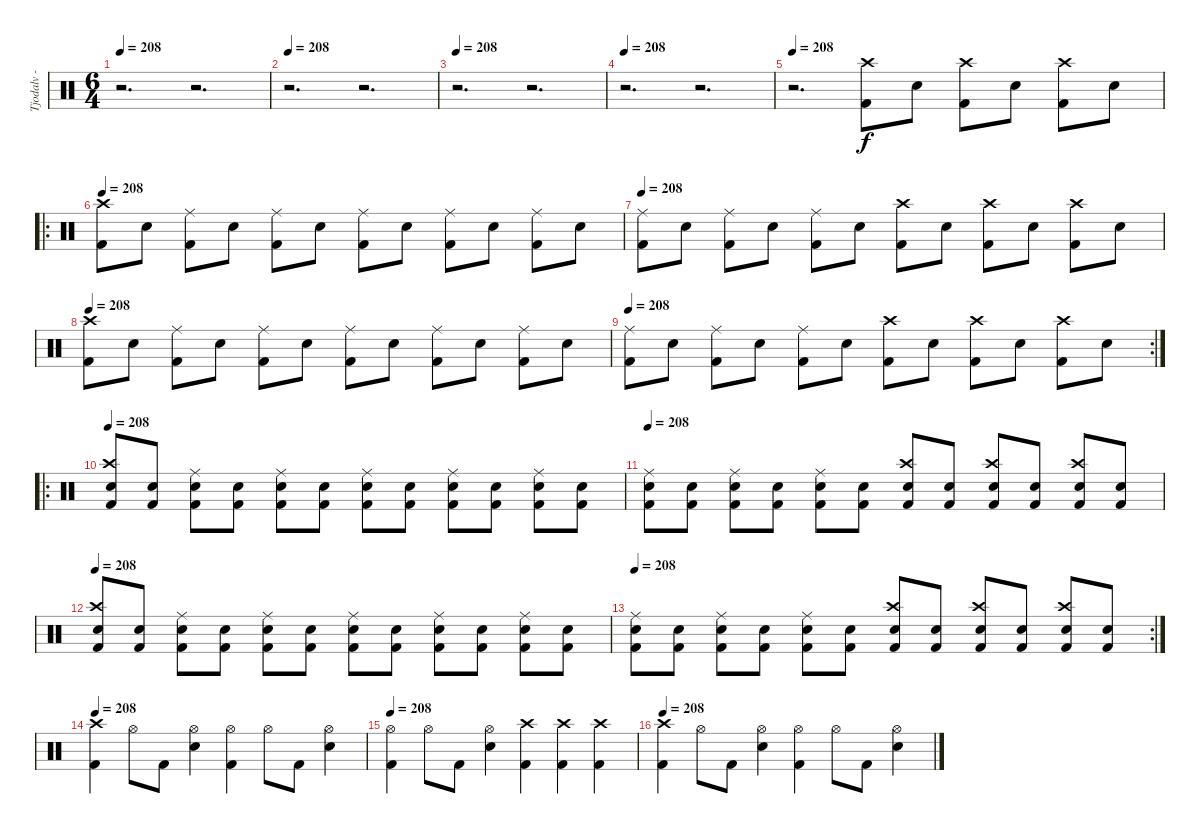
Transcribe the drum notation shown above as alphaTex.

\track ("Tjodalv - Drums" "Tjodalv - ") {instrument percussion}
\staff {score}
\articulation defaults
\ts (6 4)
\tempo 208
\clef neutral
\ks c
r.2{d dy f} r.2{d} |
\tempo 208
r.2{d} r.2{d} |
\tempo 208
r.2{d} r.2{d} |
\tempo 208
r.2{d} r.2{d} |
\tempo 208
r.2{d} ("Kick (hit) 2" "Crash high (hit)").8 "Snare (hit) 2".8 ("Kick (hit) 2" "Crash high (hit)").8 "Snare (hit) 2".8 ("Kick (hit) 2" "Crash high (hit)").8 "Snare (hit) 2".8 |
\ro
\tempo 208
("Kick (hit) 2" "Crash high (hit)").8 "Snare (hit) 2".8 ("Kick (hit) 2" "Ride (middle)").8 "Snare (hit) 2".8 ("Kick (hit) 2" "Ride (middle)").8 "Snare (hit) 2".8 ("Kick (hit) 2" "Ride (middle)").8 "Snare (hit) 2".8 ("Kick (hit) 2" "Ride (middle)").8 "Snare (hit) 2".8 ("Kick (hit) 2" "Ride (middle)").8 "Snare (hit) 2".8 |
\tempo 208
("Kick (hit) 2" "Ride (middle)").8 "Snare (hit) 2".8 ("Kick (hit) 2" "Ride (middle)").8 "Snare (hit) 2".8 ("Kick (hit) 2" "Ride (middle)").8 "Snare (hit) 2".8 ("Kick (hit) 2" "Crash high (hit)").8 "Snare (hit) 2".8 ("Kick (hit) 2" "Crash high (hit)").8 "Snare (hit) 2".8 ("Kick (hit) 2" "Crash high (hit)").8 "Snare (hit) 2".8 |
\tempo 208
("Kick (hit) 2" "Crash high (hit)").8 "Snare (hit) 2".8 ("Kick (hit) 2" "Ride (middle)").8 "Snare (hit) 2".8 ("Kick (hit) 2" "Ride (middle)").8 "Snare (hit) 2".8 ("Kick (hit) 2" "Ride (middle)").8 "Snare (hit) 2".8 ("Kick (hit) 2" "Ride (middle)").8 "Snare (hit) 2".8 ("Kick (hit) 2" "Ride (middle)").8 "Snare (hit) 2".8 |
\rc 2
\tempo 208
("Kick (hit) 2" "Ride (middle)").8 "Snare (hit) 2".8 ("Kick (hit) 2" "Ride (middle)").8 "Snare (hit) 2".8 ("Kick (hit) 2" "Ride (middle)").8 "Snare (hit) 2".8 ("Kick (hit) 2" "Crash high (hit)").8 "Snare (hit) 2".8 ("Kick (hit) 2" "Crash high (hit)").8 "Snare (hit) 2".8 ("Kick (hit) 2" "Crash high (hit)").8 "Snare (hit) 2".8 |
\ro
\tempo 208
("Kick (hit) 2" "Snare (hit) 2" "Crash high (hit)").8 ("Kick (hit) 2" "Snare (hit) 2").8 ("Kick (hit) 2" "Snare (hit) 2" "Ride (middle)").8 ("Kick (hit) 2" "Snare (hit) 2").8 ("Kick (hit) 2" "Snare (hit) 2" "Ride (middle)").8 ("Kick (hit) 2" "Snare (hit) 2").8 ("Kick (hit) 2" "Snare (hit) 2" "Ride (middle)").8 ("Kick (hit) 2" "Snare (hit) 2").8 ("Kick (hit) 2" "Snare (hit) 2" "Ride (middle)").8 ("Kick (hit) 2" "Snare (hit) 2").8 ("Kick (hit) 2" "Snare (hit) 2" "Ride (middle)").8 ("Kick (hit) 2" "Snare (hit) 2").8 |
\tempo 208
("Kick (hit) 2" "Snare (hit) 2" "Ride (middle)").8 ("Kick (hit) 2" "Snare (hit) 2").8 ("Kick (hit) 2" "Snare (hit) 2" "Ride (middle)").8 ("Kick (hit) 2" "Snare (hit) 2").8 ("Kick (hit) 2" "Snare (hit) 2" "Ride (middle)").8 ("Kick (hit) 2" "Snare (hit) 2").8 ("Kick (hit) 2" "Snare (hit) 2" "Crash high (hit)").8 ("Kick (hit) 2" "Snare (hit) 2").8 ("Kick (hit) 2" "Snare (hit) 2" "Crash high (hit)").8 ("Kick (hit) 2" "Snare (hit) 2").8 ("Kick (hit) 2" "Snare (hit) 2" "Crash high (hit)").8 ("Kick (hit) 2" "Snare (hit) 2").8 |
\tempo 208
("Kick (hit) 2" "Snare (hit) 2" "Crash high (hit)").8 ("Kick (hit) 2" "Snare (hit) 2").8 ("Kick (hit) 2" "Snare (hit) 2" "Ride (middle)").8 ("Kick (hit) 2" "Snare (hit) 2").8 ("Kick (hit) 2" "Snare (hit) 2" "Ride (middle)").8 ("Kick (hit) 2" "Snare (hit) 2").8 ("Kick (hit) 2" "Snare (hit) 2" "Ride (middle)").8 ("Kick (hit) 2" "Snare (hit) 2").8 ("Kick (hit) 2" "Snare (hit) 2" "Ride (middle)").8 ("Kick (hit) 2" "Snare (hit) 2").8 ("Kick (hit) 2" "Snare (hit) 2" "Ride (middle)").8 ("Kick (hit) 2" "Snare (hit) 2").8 |
\rc 2
\tempo 208
("Kick (hit) 2" "Snare (hit) 2" "Ride (middle)").8 ("Kick (hit) 2" "Snare (hit) 2").8 ("Kick (hit) 2" "Snare (hit) 2" "Ride (middle)").8 ("Kick (hit) 2" "Snare (hit) 2").8 ("Kick (hit) 2" "Snare (hit) 2" "Ride (middle)").8 ("Kick (hit) 2" "Snare (hit) 2").8 ("Kick (hit) 2" "Snare (hit) 2" "Crash high (hit)").8 ("Kick (hit) 2" "Snare (hit) 2").8 ("Kick (hit) 2" "Snare (hit) 2" "Crash high (hit)").8 ("Kick (hit) 2" "Snare (hit) 2").8 ("Kick (hit) 2" "Snare (hit) 2" "Crash high (hit)").8 ("Kick (hit) 2" "Snare (hit) 2").8 |
\tempo 208
("Kick (hit) 2" "Crash high (hit)").4 "Hi-Hat (open)".8 "Kick (hit) 2".8 ("Snare (hit) 2" "Hi-Hat (open)").4 ("Kick (hit) 2" "Hi-Hat (open)").4 "Hi-Hat (open)".8 "Kick (hit) 2".8 ("Snare (hit) 2" "Hi-Hat (open)").4 |
\tempo 208
("Kick (hit) 2" "Hi-Hat (open)").4 "Hi-Hat (open)".8 "Kick (hit) 2".8 ("Snare (hit) 2" "Hi-Hat (open)").4 ("Kick (hit) 2" "Crash high (hit)").4 ("Kick (hit) 2" "Crash high (hit)").4 ("Kick (hit) 2" "Crash high (hit)").4 |
\tempo 208
("Kick (hit) 2" "Crash high (hit)").4 "Hi-Hat (open)".8 "Kick (hit) 2".8 ("Snare (hit) 2" "Hi-Hat (open)").4 ("Kick (hit) 2" "Hi-Hat (open)").4 "Hi-Hat (open)".8 "Kick (hit) 2".8 ("Snare (hit) 2" "Hi-Hat (open)").4
